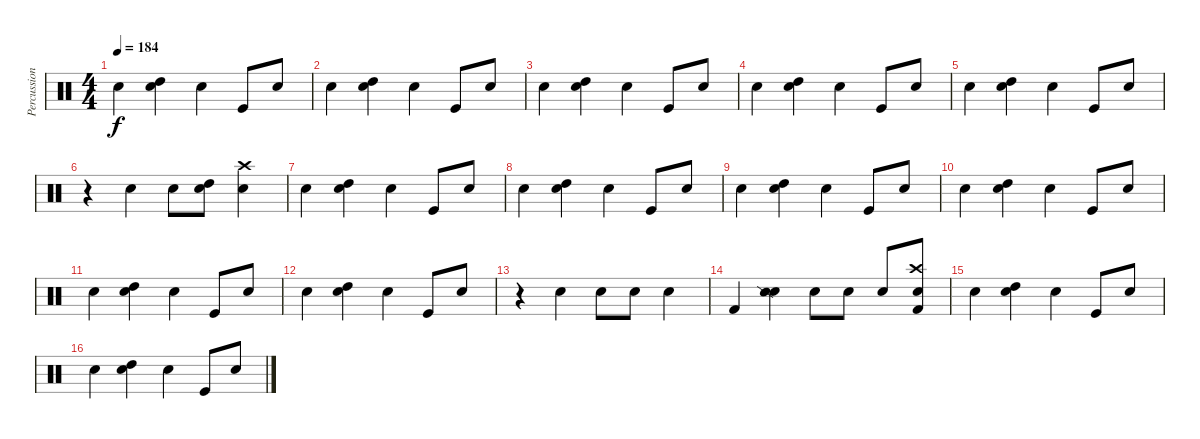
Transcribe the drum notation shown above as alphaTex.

\track ("Percussions" "Percussion") {instrument percussion}
\staff {score}
\articulation defaults
\ts (4 4)
\tempo 184
\clef neutral
\ks c "Metronome (bell)".4{dy f}
("Metronome (bell)" "High Tom (hit)").4 "Metronome (bell)".4 "Kick (hit)".8 "Metronome (bell)".8 |
"Metronome (bell)".4 ("Metronome (bell)" "High Tom (hit)").4 "Metronome (bell)".4 "Kick (hit)".8 "Metronome (bell)".8 |
"Metronome (bell)".4 ("Metronome (bell)" "High Tom (hit)").4 "Metronome (bell)".4 "Kick (hit)".8 "Metronome (bell)".8 |
"Metronome (bell)".4 ("Metronome (bell)" "High Tom (hit)").4 "Metronome (bell)".4 "Kick (hit)".8 "Metronome (bell)".8 |
"Metronome (bell)".4 ("Metronome (bell)" "High Tom (hit)").4 "Metronome (bell)".4 "Kick (hit)".8 "Metronome (bell)".8 |
r.4 "Metronome (bell)".4 "Metronome (bell)".8 ("Metronome (bell)" "High Tom (hit)").8 ("Metronome (bell)" "Crash high (hit)").4 |
"Metronome (bell)".4 ("Metronome (bell)" "High Tom (hit)").4 "Metronome (bell)".4 "Kick (hit)".8 "Metronome (bell)".8 |
"Metronome (bell)".4 ("Metronome (bell)" "High Tom (hit)").4 "Metronome (bell)".4 "Kick (hit)".8 "Metronome (bell)".8 |
"Metronome (bell)".4 ("Metronome (bell)" "High Tom (hit)").4 "Metronome (bell)".4 "Kick (hit)".8 "Metronome (bell)".8 |
"Metronome (bell)".4 ("Metronome (bell)" "High Tom (hit)").4 "Metronome (bell)".4 "Kick (hit)".8 "Metronome (bell)".8 |
"Metronome (bell)".4 ("Metronome (bell)" "High Tom (hit)").4 "Metronome (bell)".4 "Kick (hit)".8 "Metronome (bell)".8 |
"Metronome (bell)".4 ("Metronome (bell)" "High Tom (hit)").4 "Metronome (bell)".4 "Kick (hit)".8 "Metronome (bell)".8 |
r.4 "Metronome (bell)".4 "Metronome (bell)".8 "Metronome (bell)".8 "Metronome (bell)".4 |
"Kick (hit) 2".4 ("Metronome (bell)" "Snare (side stick) 2").4 "Metronome (bell)".8 "Metronome (bell)".8 "Metronome (bell)".8 ("Kick (hit) 2" "Metronome (bell)" "Crash high (hit)").8 |
"Metronome (bell)".4 ("Metronome (bell)" "High Tom (hit)").4 "Metronome (bell)".4 "Kick (hit)".8 "Metronome (bell)".8 |
"Metronome (bell)".4 ("Metronome (bell)" "High Tom (hit)").4 "Metronome (bell)".4 "Kick (hit)".8 "Metronome (bell)".8
